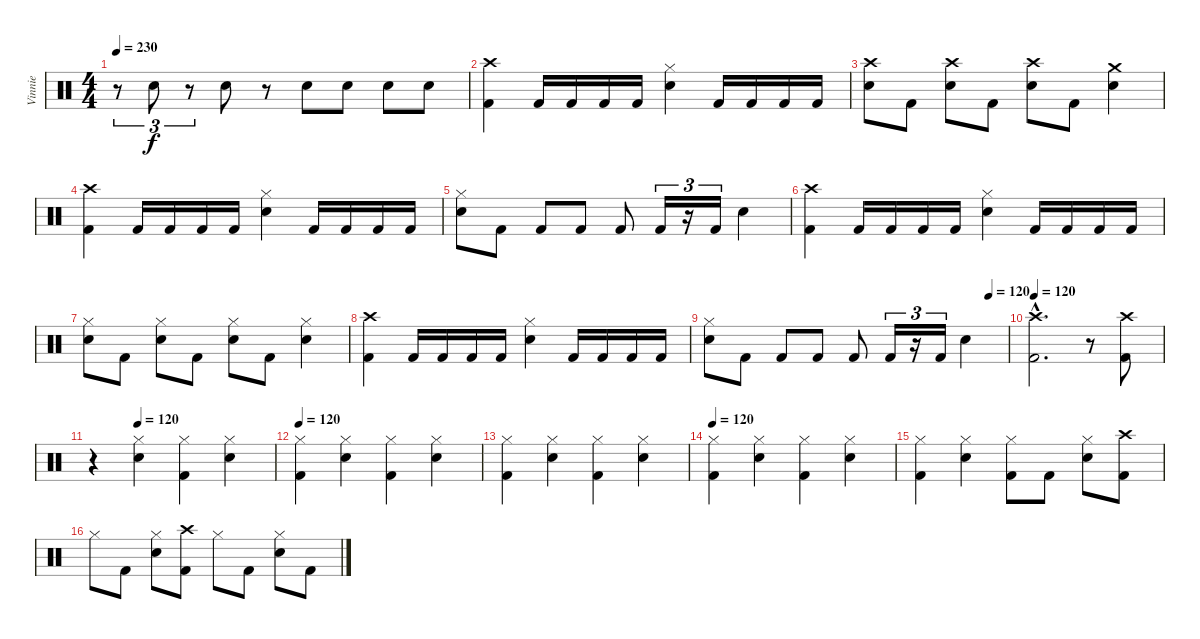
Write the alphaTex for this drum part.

\track ("Vinnie" "Vinnie") {instrument percussion}
\staff {score}
\articulation defaults
\ts (4 4)
\tempo 230
\clef neutral
\ks c
r.8{tu (3 2) dy f} "Electric Snare (hit)".8{tu (3 2)} r.8{tu (3 2)} "Electric Snare (hit)".8 r.8 "Electric Snare (hit)".8 "Electric Snare (hit)".8 "Electric Snare (hit)".8 "Electric Snare (hit)".8 |
("Crash high (hit)" "Kick (hit) 2").4 "Kick (hit) 2".16 "Kick (hit) 2".16 "Kick (hit) 2".16 "Kick (hit) 2".16 ("Hi-Hat (closed)" "Electric Snare (hit)").4 "Kick (hit) 2".16 "Kick (hit) 2".16 "Kick (hit) 2".16 "Kick (hit) 2".16 |
("Crash high (hit)" "Electric Snare (hit)").8 "Kick (hit) 2".8 ("Crash high (hit)" "Electric Snare (hit)").8 "Kick (hit) 2".8 ("Crash high (hit)" "Electric Snare (hit)").8 "Kick (hit) 2".8 ("Crash medium (hit)" "Electric Snare (hit)").4 |
("Crash high (hit)" "Kick (hit) 2").4 "Kick (hit) 2".16 "Kick (hit) 2".16 "Kick (hit) 2".16 "Kick (hit) 2".16 ("Hi-Hat (closed)" "Electric Snare (hit)").4 "Kick (hit) 2".16 "Kick (hit) 2".16 "Kick (hit) 2".16 "Kick (hit) 2".16 |
("Hi-Hat (closed)" "Electric Snare (hit)").8 "Kick (hit) 2".8 "Kick (hit) 2".8 "Kick (hit) 2".8 "Kick (hit) 2".8 "Kick (hit) 2".16{tu (3 2)} r.16{tu (3 2)} "Kick (hit) 2".16{tu (3 2)} "Electric Snare (hit)".4 |
("Crash high (hit)" "Kick (hit) 2").4 "Kick (hit) 2".16 "Kick (hit) 2".16 "Kick (hit) 2".16 "Kick (hit) 2".16 ("Hi-Hat (closed)" "Electric Snare (hit)").4 "Kick (hit) 2".16 "Kick (hit) 2".16 "Kick (hit) 2".16 "Kick (hit) 2".16 |
("Hi-Hat (closed)" "Electric Snare (hit)").8 "Kick (hit) 2".8 ("Hi-Hat (closed)" "Electric Snare (hit)").8 "Kick (hit) 2".8 ("Hi-Hat (closed)" "Electric Snare (hit)").8 "Kick (hit) 2".8 ("Hi-Hat (closed)" "Electric Snare (hit)").4 |
("Crash high (hit)" "Kick (hit) 2").4 "Kick (hit) 2".16 "Kick (hit) 2".16 "Kick (hit) 2".16 "Kick (hit) 2".16 ("Hi-Hat (closed)" "Electric Snare (hit)").4 "Kick (hit) 2".16 "Kick (hit) 2".16 "Kick (hit) 2".16 "Kick (hit) 2".16 |
\tempo (120 0.9375)
("Hi-Hat (closed)" "Electric Snare (hit)").8 "Kick (hit) 2".8 "Kick (hit) 2".8 "Kick (hit) 2".8 "Kick (hit) 2".8 "Kick (hit) 2".16{tu (3 2)} r.16{tu (3 2)} "Kick (hit) 2".16{tu (3 2)} "Electric Snare (hit)".4 |
\tempo 120
("Crash high (hit)"{hac} "Kick (hit) 2"{hac}).2{d} r.8 ("Crash high (hit)" "Kick (hit) 2").8 |
\tempo (120 0.25)
r.4 ("Hi-Hat (closed)" "Electric Snare (hit)").4 ("Hi-Hat (closed)" "Kick (hit) 2").4 ("Hi-Hat (closed)" "Electric Snare (hit)").4 |
\tempo 120
("Hi-Hat (closed)" "Kick (hit) 2").4 ("Hi-Hat (closed)" "Electric Snare (hit)").4 ("Hi-Hat (closed)" "Kick (hit) 2").4 ("Hi-Hat (closed)" "Electric Snare (hit)").4 |
("Hi-Hat (closed)" "Kick (hit) 2").4 ("Hi-Hat (closed)" "Electric Snare (hit)").4 ("Hi-Hat (closed)" "Kick (hit) 2").4 ("Hi-Hat (closed)" "Electric Snare (hit)").4 |
\tempo 120
("Hi-Hat (closed)" "Kick (hit) 2").4 ("Hi-Hat (closed)" "Electric Snare (hit)").4 ("Hi-Hat (closed)" "Kick (hit) 2").4 ("Hi-Hat (closed)" "Electric Snare (hit)").4 |
("Hi-Hat (closed)" "Kick (hit) 2").4 ("Hi-Hat (closed)" "Electric Snare (hit)").4 ("Hi-Hat (closed)" "Kick (hit) 2").8 "Kick (hit) 2".8 ("Hi-Hat (closed)" "Electric Snare (hit)").8 ("Crash high (hit)" "Kick (hit) 2").8 |
"Hi-Hat (closed)".8 "Kick (hit) 2".8 ("Hi-Hat (closed)" "Electric Snare (hit)").8 ("Crash high (hit)" "Kick (hit) 2").8 "Hi-Hat (closed)".8 "Kick (hit) 2".8 ("Hi-Hat (closed)" "Electric Snare (hit)").8 "Kick (hit) 2".8
